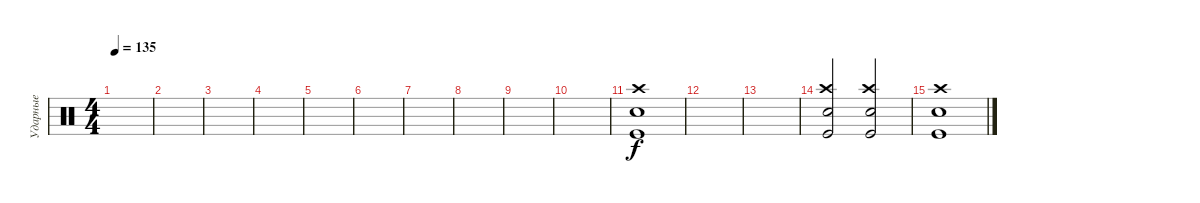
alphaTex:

\track ("Ударные" "Ударные") {instrument percussion}
\staff {score}
\articulation defaults
\ts (4 4)
\tempo 135
\clef neutral
\ks c
|
|
|
|
|
|
|
|
|
|
("Kick (hit)" "Crash high (hit)" "Electric Snare (hit)").1 |
|
|
("Kick (hit)" "Crash high (hit)" "Electric Snare (hit)").2 ("Kick (hit)" "Crash high (hit)" "Electric Snare (hit)").2 |
("Kick (hit)" "Crash high (hit)" "Electric Snare (hit)").1
